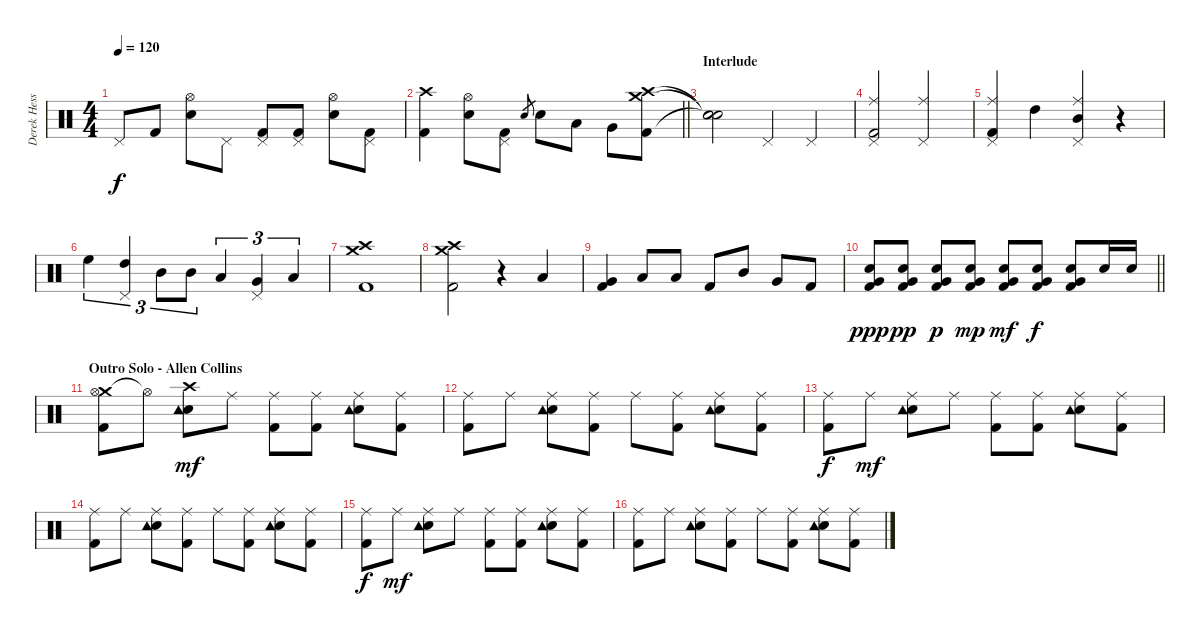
\track ("Derek Hess (Drums and Percussion)" "Derek Hess") {instrument percussion}
\staff {score}
\articulation defaults
\ts (4 4)
\tempo 120
\clef neutral
\ks c "Pedal Hi-Hat (hit)".8{dy f} "Kick (hit) 2".8
("Snare (hit) 2" "Hi-Hat (open)").8 "Pedal Hi-Hat (hit)".8 ("Pedal Hi-Hat (hit)" "Kick (hit) 2").8 ("Pedal Hi-Hat (hit)" "Kick (hit) 2").8 ("Snare (hit) 2" "Hi-Hat (open)").8 ("Pedal Hi-Hat (hit)" "Kick (hit) 2").8 |
\barLineRight lightlight
("Crash high (hit)" "Kick (hit) 2").4 ("Snare (hit) 2" "Hi-Hat (open)").8 ("Pedal Hi-Hat (hit)" "Kick (hit) 2").8 "Snare (hit) 2".8{gr} "Snare (hit) 2".8 "Low Tom (hit)".8 "Very Low Tom (hit)".8 ("Crash medium (hit)" "Crash high (hit)" "Kick (hit) 2").8 |
\section ("" "Interlude")
("Snare (hit)"{t} "Snare (hit)"{t} "Snare (hit)"{t}).2 "Pedal Hi-Hat (hit)".4 "Pedal Hi-Hat (hit)".4 |
("Ride (middle)" "Pedal Hi-Hat (hit)" "Kick (hit) 2").2 ("Ride (middle)" "Pedal Hi-Hat (hit)").2 |
("Ride (middle)" "Pedal Hi-Hat (hit)" "Kick (hit) 2").4 "High Tom (hit)".4 ("Ride (middle)" "Pedal Hi-Hat (hit)" "Mid Tom (hit)").4 r.4 |
"High Floor Tom (hit)".4{tu (3 2)} ("Pedal Hi-Hat (hit)" "High Tom (hit)").4{tu (3 2)} "Mid Tom (hit)".8{tu (3 2)} "Mid Tom (hit)".8{tu (3 2)} "Low Tom (hit)".4{tu (3 2)} ("Pedal Hi-Hat (hit)" "Very Low Tom (hit)").4{tu (3 2)} "Low Floor Tom (hit)".4{tu (3 2)} |
("Crash high (hit)" "Crash medium (hit)" "Kick (hit) 2").1 |
("Crash high (hit)" "Crash medium (hit)" "Kick (hit) 2").2 r.4 "Low Tom (hit)".4 |
("Very Low Tom (hit)" "Kick (hit) 2").4 "Low Floor Tom (hit)".8 "Low Floor Tom (hit)".8 "Kick (hit) 2".8 "Mid Tom (hit)".8 "Very Low Tom (hit)".8 "Kick (hit) 2".8 |
\barLineRight lightlight
("Snare (hit) 2" "Very Low Tom (hit)" "Kick (hit) 2").8{dy ppp} ("Snare (hit) 2" "Very Low Tom (hit)" "Kick (hit) 2").8{dy pp} ("Snare (hit) 2" "Very Low Tom (hit)" "Kick (hit) 2").8{dy p} ("Snare (hit) 2" "Very Low Tom (hit)" "Kick (hit) 2").8{dy mp} ("Snare (hit) 2" "Very Low Tom (hit)" "Kick (hit) 2").8{dy mf} ("Snare (hit) 2" "Very Low Tom (hit)" "Kick (hit) 2").8{dy f} ("Snare (hit) 2" "Very Low Tom (hit)" "Kick (hit) 2").8 "Snare (hit) 2".16 "Snare (hit) 2".16 |
\section ("" "Outro Solo - Allen Collins")
("Crash medium (hit)" "Hi-Hat (open)" "Kick (hit) 2").8 "Hi-Hat (open)"{t}.8 ("Crash high (hit)" "Snare (hit) 2" "Tambourine (hit)").8{dy mf} "Ride (middle)".8 ("Ride (middle)" "Kick (hit) 2").8 ("Ride (middle)" "Kick (hit) 2").8 ("Ride (middle)" "Snare (hit) 2" "Tambourine (hit)").8 ("Ride (middle)" "Kick (hit) 2").8 |
("Ride (middle)" "Kick (hit) 2").8 "Ride (middle)".8 ("Ride (middle)" "Snare (hit) 2" "Tambourine (hit)").8 ("Ride (middle)" "Kick (hit) 2").8 "Ride (middle)".8 ("Ride (middle)" "Kick (hit) 2").8 ("Ride (middle)" "Snare (hit) 2" "Tambourine (hit)").8 ("Ride (middle)" "Kick (hit) 2").8 |
("Ride (middle)" "Kick (hit) 2").8{dy f} "Ride (middle)".8{dy mf} ("Ride (middle)" "Snare (hit) 2" "Tambourine (hit)").8 "Ride (middle)".8 ("Ride (middle)" "Kick (hit) 2").8 ("Ride (middle)" "Kick (hit) 2").8 ("Ride (middle)" "Snare (hit) 2" "Tambourine (hit)").8 ("Ride (middle)" "Kick (hit) 2").8 |
("Ride (middle)" "Kick (hit) 2").8 "Ride (middle)".8 ("Ride (middle)" "Snare (hit) 2" "Tambourine (hit)").8 ("Ride (middle)" "Kick (hit) 2").8 "Ride (middle)".8 ("Ride (middle)" "Kick (hit) 2").8 ("Ride (middle)" "Snare (hit) 2" "Tambourine (hit)").8 ("Ride (middle)" "Kick (hit) 2").8 |
("Ride (middle)" "Kick (hit) 2").8{dy f} "Ride (middle)".8{dy mf} ("Ride (middle)" "Snare (hit) 2" "Tambourine (hit)").8 "Ride (middle)".8 ("Ride (middle)" "Kick (hit) 2").8 ("Ride (middle)" "Kick (hit) 2").8 ("Ride (middle)" "Snare (hit) 2" "Tambourine (hit)").8 ("Ride (middle)" "Kick (hit) 2").8 |
("Ride (middle)" "Kick (hit) 2").8 "Ride (middle)".8 ("Ride (middle)" "Snare (hit) 2" "Tambourine (hit)").8 ("Ride (middle)" "Kick (hit) 2").8 "Ride (middle)".8 ("Ride (middle)" "Kick (hit) 2").8 ("Ride (middle)" "Snare (hit) 2" "Tambourine (hit)").8 ("Ride (middle)" "Kick (hit) 2").8
